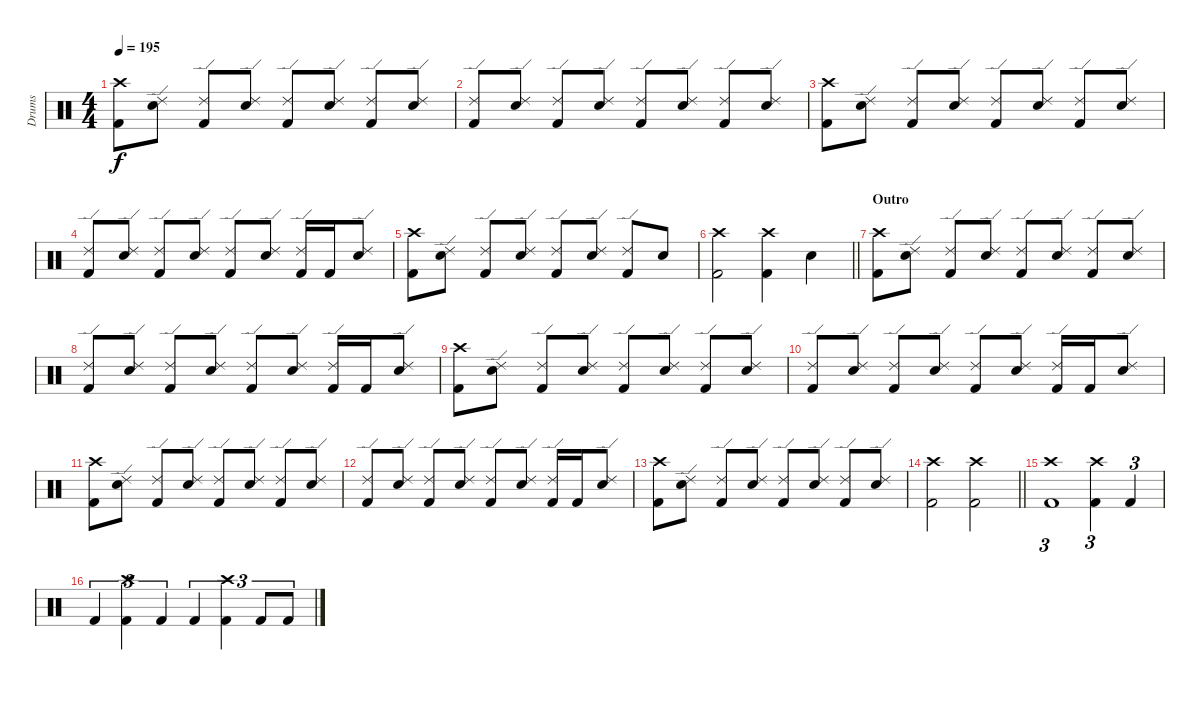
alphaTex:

\track ("Drums" "Drums") {instrument percussion}
\staff {score}
\articulation defaults
\ts (4 4)
\tempo 195
\clef neutral
\ks c
("Crash high (hit)" "Kick (hit) 2").8{dy f} ("Ride (edge) 2" "Snare (hit) 2").8 ("Ride (edge) 2" "Kick (hit) 2").8 ("Ride (edge) 2" "Snare (hit) 2").8 ("Ride (edge) 2" "Kick (hit) 2").8 ("Ride (edge) 2" "Snare (hit) 2").8 ("Ride (edge) 2" "Kick (hit) 2").8 ("Ride (edge) 2" "Snare (hit) 2").8 |
("Ride (edge) 2" "Kick (hit) 2").8 ("Ride (edge) 2" "Snare (hit) 2").8 ("Ride (edge) 2" "Kick (hit) 2").8 ("Ride (edge) 2" "Snare (hit) 2").8 ("Ride (edge) 2" "Kick (hit) 2").8 ("Ride (edge) 2" "Snare (hit) 2").8 ("Ride (edge) 2" "Kick (hit) 2").8 ("Ride (edge) 2" "Snare (hit) 2").8 |
("Crash high (hit)" "Kick (hit) 2").8 ("Ride (edge) 2" "Snare (hit) 2").8 ("Ride (edge) 2" "Kick (hit) 2").8 ("Ride (edge) 2" "Snare (hit) 2").8 ("Ride (edge) 2" "Kick (hit) 2").8 ("Ride (edge) 2" "Snare (hit) 2").8 ("Ride (edge) 2" "Kick (hit) 2").8 ("Ride (edge) 2" "Snare (hit) 2").8 |
("Ride (edge) 2" "Kick (hit) 2").8 ("Ride (edge) 2" "Snare (hit) 2").8 ("Ride (edge) 2" "Kick (hit) 2").8 ("Ride (edge) 2" "Snare (hit) 2").8 ("Ride (edge) 2" "Kick (hit) 2").8 ("Ride (edge) 2" "Snare (hit) 2").8 ("Ride (edge) 2" "Kick (hit) 2").16 "Kick (hit) 2".16 ("Ride (edge) 2" "Snare (hit) 2").8 |
("Crash high (hit)" "Kick (hit) 2").8 ("Ride (edge) 2" "Snare (hit) 2").8 ("Ride (edge) 2" "Kick (hit) 2").8 ("Ride (edge) 2" "Snare (hit) 2").8 ("Ride (edge) 2" "Kick (hit) 2").8 ("Ride (edge) 2" "Snare (hit) 2").8 ("Ride (edge) 2" "Kick (hit) 2").8 "Snare (hit) 2".8 |
\barLineRight lightlight
("Crash high (hit)" "Kick (hit) 2").2 ("Crash high (hit)" "Kick (hit) 2").4 "Snare (hit) 2".4 |
\section ("" "Outro")
("Crash high (hit)" "Kick (hit) 2").8 ("Ride (edge) 2" "Snare (hit) 2").8 ("Ride (edge) 2" "Kick (hit) 2").8 ("Ride (edge) 2" "Snare (hit) 2").8 ("Ride (edge) 2" "Kick (hit) 2").8 ("Ride (edge) 2" "Snare (hit) 2").8 ("Ride (edge) 2" "Kick (hit) 2").8 ("Ride (edge) 2" "Snare (hit) 2").8 |
("Ride (edge) 2" "Kick (hit) 2").8 ("Ride (edge) 2" "Snare (hit) 2").8 ("Ride (edge) 2" "Kick (hit) 2").8 ("Ride (edge) 2" "Snare (hit) 2").8 ("Ride (edge) 2" "Kick (hit) 2").8 ("Ride (edge) 2" "Snare (hit) 2").8 ("Ride (edge) 2" "Kick (hit) 2").16 "Kick (hit) 2".16 ("Ride (edge) 2" "Snare (hit) 2").8 |
("Crash high (hit)" "Kick (hit) 2").8 ("Ride (edge) 2" "Snare (hit) 2").8 ("Ride (edge) 2" "Kick (hit) 2").8 ("Ride (edge) 2" "Snare (hit) 2").8 ("Ride (edge) 2" "Kick (hit) 2").8 ("Ride (edge) 2" "Snare (hit) 2").8 ("Ride (edge) 2" "Kick (hit) 2").8 ("Ride (edge) 2" "Snare (hit) 2").8 |
("Ride (edge) 2" "Kick (hit) 2").8 ("Ride (edge) 2" "Snare (hit) 2").8 ("Ride (edge) 2" "Kick (hit) 2").8 ("Ride (edge) 2" "Snare (hit) 2").8 ("Ride (edge) 2" "Kick (hit) 2").8 ("Ride (edge) 2" "Snare (hit) 2").8 ("Ride (edge) 2" "Kick (hit) 2").16 "Kick (hit) 2".16 ("Ride (edge) 2" "Snare (hit) 2").8 |
("Crash high (hit)" "Kick (hit) 2").8 ("Ride (edge) 2" "Snare (hit) 2").8 ("Ride (edge) 2" "Kick (hit) 2").8 ("Ride (edge) 2" "Snare (hit) 2").8 ("Ride (edge) 2" "Kick (hit) 2").8 ("Ride (edge) 2" "Snare (hit) 2").8 ("Ride (edge) 2" "Kick (hit) 2").8 ("Ride (edge) 2" "Snare (hit) 2").8 |
("Ride (edge) 2" "Kick (hit) 2").8 ("Ride (edge) 2" "Snare (hit) 2").8 ("Ride (edge) 2" "Kick (hit) 2").8 ("Ride (edge) 2" "Snare (hit) 2").8 ("Ride (edge) 2" "Kick (hit) 2").8 ("Ride (edge) 2" "Snare (hit) 2").8 ("Ride (edge) 2" "Kick (hit) 2").16 "Kick (hit) 2".16 ("Ride (edge) 2" "Snare (hit) 2").8 |
("Crash high (hit)" "Kick (hit) 2").8 ("Ride (edge) 2" "Snare (hit) 2").8 ("Ride (edge) 2" "Kick (hit) 2").8 ("Ride (edge) 2" "Snare (hit) 2").8 ("Ride (edge) 2" "Kick (hit) 2").8 ("Ride (edge) 2" "Snare (hit) 2").8 ("Ride (edge) 2" "Kick (hit) 2").8 ("Ride (edge) 2" "Snare (hit) 2").8 |
\barLineRight lightlight
("Crash high (hit)" "Kick (hit) 2").2 ("Crash high (hit)" "Kick (hit) 2").2 |
("Crash high (hit)" "Kick (hit) 2").1{tu (3 2)} ("Crash high (hit)" "Kick (hit) 2").4{tu (3 2)} "Kick (hit) 2".4{tu (3 2)} |
"Kick (hit) 2".4{tu (3 2)} ("Crash high (hit)" "Kick (hit) 2").4{tu (3 2)} "Kick (hit) 2".4{tu (3 2)} "Kick (hit) 2".4{tu (3 2)} ("Crash high (hit)" "Kick (hit) 2").4{tu (3 2)} "Kick (hit) 2".8{tu (3 2)} "Kick (hit) 2".8{tu (3 2)}
